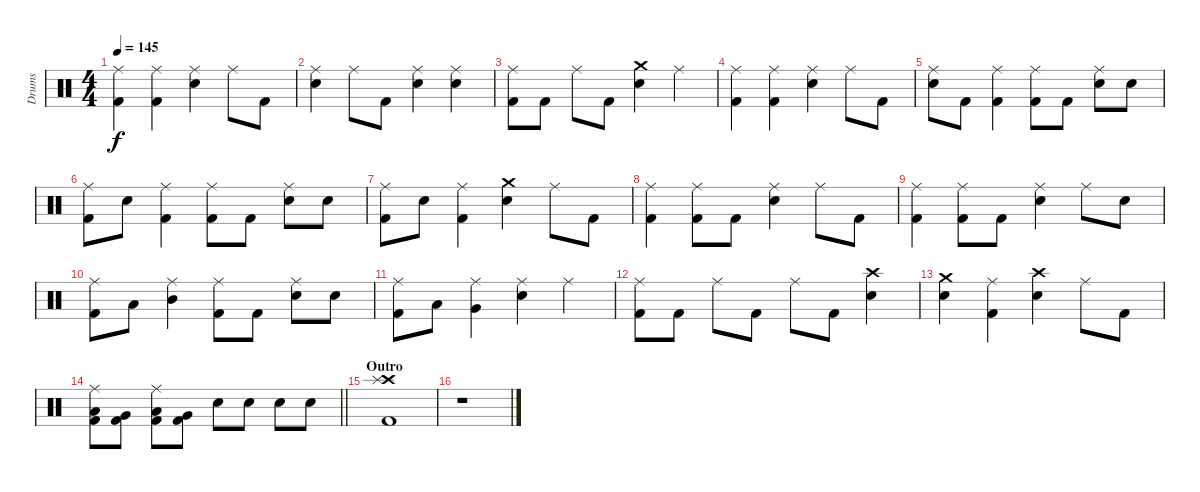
\track ("Drums" "Drums") {instrument percussion}
\staff {score}
\articulation defaults
\ts (4 4)
\tempo 145
\clef neutral
\ks c
("Ride (middle)" "Kick (hit) 2").4{dy f} ("Ride (middle)" "Kick (hit) 2").4 ("Ride (middle)" "Snare (hit) 2").4 "Ride (middle)".8 "Kick (hit) 2".8 |
("Ride (middle)" "Snare (hit) 2").4 "Ride (middle)".8 "Kick (hit) 2".8 ("Ride (middle)" "Snare (hit) 2").4 ("Ride (middle)" "Snare (hit) 2").4 |
("Ride (middle)" "Kick (hit) 2").8 "Kick (hit) 2".8 "Ride (middle)".8 "Kick (hit) 2".8 ("Crash medium (hit)" "Snare (hit) 2").4 "Ride (middle)".4 |
("Ride (middle)" "Kick (hit) 2").4 ("Ride (middle)" "Kick (hit) 2").4 ("Ride (middle)" "Snare (hit) 2").4 "Ride (middle)".8 "Kick (hit) 2".8 |
("Ride (middle)" "Snare (hit) 2").8 "Kick (hit) 2".8 ("Ride (middle)" "Kick (hit) 2").4 ("Ride (middle)" "Kick (hit) 2").8 "Kick (hit) 2".8 ("Ride (middle)" "Snare (hit) 2").8 "Snare (hit) 2".8 |
("Ride (middle)" "Kick (hit) 2").8 "Snare (hit) 2".8 ("Ride (middle)" "Kick (hit) 2").4 ("Ride (middle)" "Kick (hit) 2").8 "Kick (hit) 2".8 ("Ride (middle)" "Snare (hit) 2").8 "Snare (hit) 2".8 |
("Ride (middle)" "Kick (hit) 2").8 "Snare (hit) 2".8 ("Ride (middle)" "Kick (hit) 2").4 ("Crash medium (hit)" "Snare (hit) 2").4 "Ride (middle)".8 "Kick (hit) 2".8 |
("Ride (middle)" "Kick (hit) 2").4 ("Ride (middle)" "Kick (hit) 2").8 "Kick (hit) 2".8 ("Ride (middle)" "Snare (hit) 2").4 "Ride (middle)".8 "Kick (hit) 2".8 |
("Ride (middle)" "Kick (hit) 2").4 ("Ride (middle)" "Kick (hit) 2").8 "Kick (hit) 2".8 ("Ride (middle)" "Snare (hit) 2").4 "Ride (middle)".8 "Snare (hit) 2".8 |
("Ride (middle)" "Kick (hit) 2").8 "Low Tom (hit)".8 ("Ride (middle)" "Mid Tom (hit)").4 ("Ride (middle)" "Kick (hit) 2").8 "Kick (hit) 2".8 ("Ride (middle)" "Snare (hit) 2").8 "Snare (hit) 2".8 |
("Ride (middle)" "Kick (hit) 2").8 "Low Floor Tom (hit)".8 ("Ride (middle)" "Very Low Tom (hit)").4 ("Ride (middle)" "Snare (hit) 2").4 "Ride (middle)".4 |
("Ride (middle)" "Kick (hit) 2").8 "Kick (hit) 2".8 "Ride (middle)".8 "Kick (hit) 2".8 "Ride (middle)".8 "Kick (hit) 2".8 ("Crash high (hit)" "Snare (hit) 2").4 |
("Crash medium (hit)" "Snare (hit) 2").4 ("Ride (middle)" "Kick (hit) 2").4 ("Crash high (hit)" "Snare (hit) 2").4 "Ride (middle)".8 "Kick (hit) 2".8 |
\barLineRight lightlight
("Ride (middle)" "Low Floor Tom (hit)" "Kick (hit) 2").8 ("Very Low Tom (hit)" "Kick (hit) 2").8 ("Ride (middle)" "Low Floor Tom (hit)" "Kick (hit) 2").8 ("Very Low Tom (hit)" "Kick (hit) 2").8 "Snare (hit) 2".8 "Snare (hit) 2".8 "Snare (hit) 2".8 "Snare (hit) 2".8 |
\section ("" "Outro")
("Crash high (hit)" "Splash (hit)" "Kick (hit) 2").1 |
r.1
